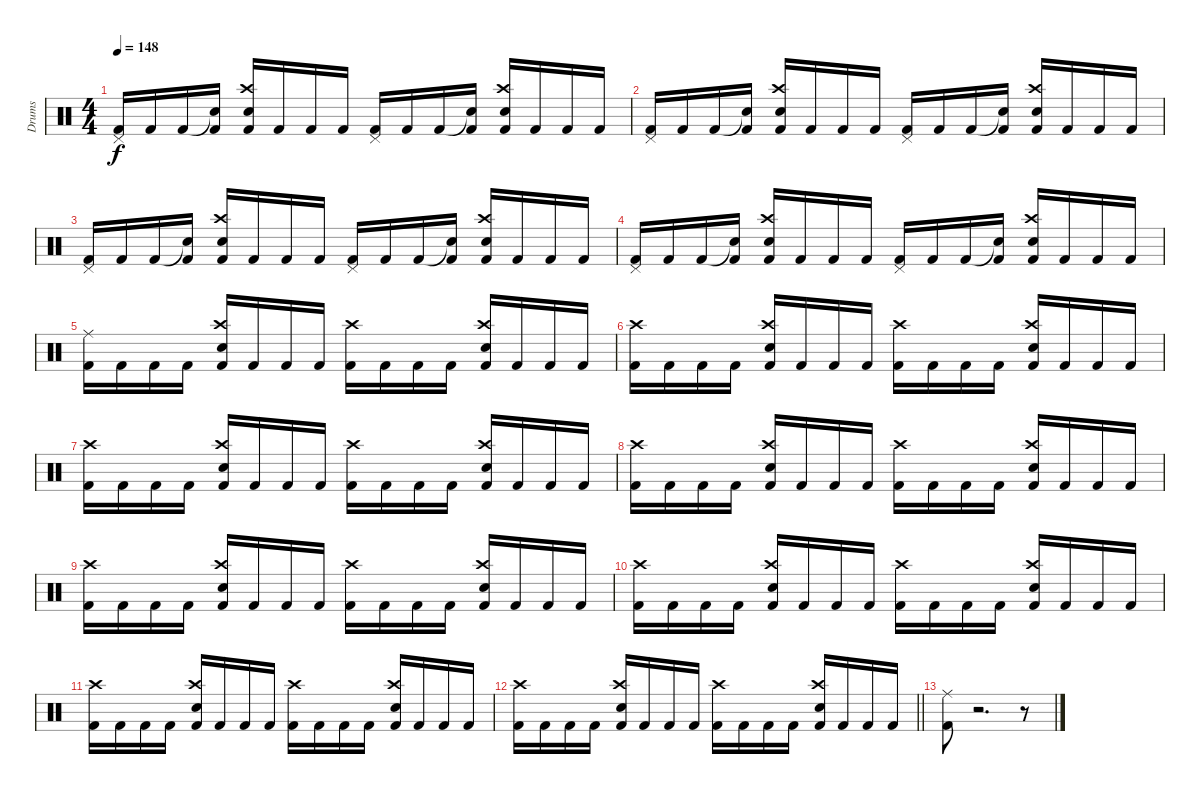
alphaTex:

\track ("Drums" "Drums") {instrument percussion}
\staff {score}
\articulation defaults
\ts (4 4)
\tempo 148
\clef neutral
\ks c
("Pedal Hi-Hat (hit)" "Kick (hit) 2").16{dy f} "Kick (hit) 2".16 "Kick (hit) 2".16 ("Snare (hit)"{t} "Kick (hit) 2").16 ("Crash high (hit)" "Electric Snare (hit)" "Kick (hit) 2").16 "Kick (hit) 2".16 "Kick (hit) 2".16 "Kick (hit) 2".16 ("Pedal Hi-Hat (hit)" "Kick (hit) 2").16 "Kick (hit) 2".16 "Kick (hit) 2".16 ("Snare (hit)"{t} "Kick (hit) 2").16 ("Crash high (hit)" "Electric Snare (hit)" "Kick (hit) 2").16 "Kick (hit) 2".16 "Kick (hit) 2".16 "Kick (hit) 2".16 |
("Pedal Hi-Hat (hit)" "Kick (hit) 2").16 "Kick (hit) 2".16 "Kick (hit) 2".16 ("Snare (hit)"{t} "Kick (hit) 2").16 ("Crash high (hit)" "Electric Snare (hit)" "Kick (hit) 2").16 "Kick (hit) 2".16 "Kick (hit) 2".16 "Kick (hit) 2".16 ("Pedal Hi-Hat (hit)" "Kick (hit) 2").16 "Kick (hit) 2".16 "Kick (hit) 2".16 ("Snare (hit)"{t} "Kick (hit) 2").16 ("Crash high (hit)" "Electric Snare (hit)" "Kick (hit) 2").16 "Kick (hit) 2".16 "Kick (hit) 2".16 "Kick (hit) 2".16 |
("Pedal Hi-Hat (hit)" "Kick (hit) 2").16 "Kick (hit) 2".16 "Kick (hit) 2".16 ("Snare (hit)"{t} "Kick (hit) 2").16 ("Crash high (hit)" "Electric Snare (hit)" "Kick (hit) 2").16 "Kick (hit) 2".16 "Kick (hit) 2".16 "Kick (hit) 2".16 ("Pedal Hi-Hat (hit)" "Kick (hit) 2").16 "Kick (hit) 2".16 "Kick (hit) 2".16 ("Snare (hit)"{t} "Kick (hit) 2").16 ("Crash high (hit)" "Electric Snare (hit)" "Kick (hit) 2").16 "Kick (hit) 2".16 "Kick (hit) 2".16 "Kick (hit) 2".16 |
("Pedal Hi-Hat (hit)" "Kick (hit) 2").16 "Kick (hit) 2".16 "Kick (hit) 2".16 ("Snare (hit)"{t} "Kick (hit) 2").16 ("Crash high (hit)" "Electric Snare (hit)" "Kick (hit) 2").16 "Kick (hit) 2".16 "Kick (hit) 2".16 "Kick (hit) 2".16 ("Pedal Hi-Hat (hit)" "Kick (hit) 2").16 "Kick (hit) 2".16 "Kick (hit) 2".16 ("Snare (hit)"{t} "Kick (hit) 2").16 ("Crash high (hit)" "Electric Snare (hit)" "Kick (hit) 2").16 "Kick (hit) 2".16 "Kick (hit) 2".16 "Kick (hit) 2".16 |
("Ride (middle)" "Kick (hit) 2").16 "Kick (hit) 2".16 "Kick (hit) 2".16 "Kick (hit) 2".16 ("Crash high (hit)" "Electric Snare (hit)" "Kick (hit) 2").16 "Kick (hit) 2".16 "Kick (hit) 2".16 "Kick (hit) 2".16 ("Crash high (hit)" "Kick (hit) 2").16 "Kick (hit) 2".16 "Kick (hit) 2".16 "Kick (hit) 2".16 ("Crash high (hit)" "Electric Snare (hit)" "Kick (hit) 2").16 "Kick (hit) 2".16 "Kick (hit) 2".16 "Kick (hit) 2".16 |
("Crash high (hit)" "Kick (hit) 2").16 "Kick (hit) 2".16 "Kick (hit) 2".16 "Kick (hit) 2".16 ("Crash high (hit)" "Electric Snare (hit)" "Kick (hit) 2").16 "Kick (hit) 2".16 "Kick (hit) 2".16 "Kick (hit) 2".16 ("Crash high (hit)" "Kick (hit) 2").16 "Kick (hit) 2".16 "Kick (hit) 2".16 "Kick (hit) 2".16 ("Crash high (hit)" "Electric Snare (hit)" "Kick (hit) 2").16 "Kick (hit) 2".16 "Kick (hit) 2".16 "Kick (hit) 2".16 |
("Crash high (hit)" "Kick (hit) 2").16 "Kick (hit) 2".16 "Kick (hit) 2".16 "Kick (hit) 2".16 ("Crash high (hit)" "Electric Snare (hit)" "Kick (hit) 2").16 "Kick (hit) 2".16 "Kick (hit) 2".16 "Kick (hit) 2".16 ("Crash high (hit)" "Kick (hit) 2").16 "Kick (hit) 2".16 "Kick (hit) 2".16 "Kick (hit) 2".16 ("Crash high (hit)" "Electric Snare (hit)" "Kick (hit) 2").16 "Kick (hit) 2".16 "Kick (hit) 2".16 "Kick (hit) 2".16 |
("Crash high (hit)" "Kick (hit) 2").16 "Kick (hit) 2".16 "Kick (hit) 2".16 "Kick (hit) 2".16 ("Crash high (hit)" "Electric Snare (hit)" "Kick (hit) 2").16 "Kick (hit) 2".16 "Kick (hit) 2".16 "Kick (hit) 2".16 ("Crash high (hit)" "Kick (hit) 2").16 "Kick (hit) 2".16 "Kick (hit) 2".16 "Kick (hit) 2".16 ("Crash high (hit)" "Electric Snare (hit)" "Kick (hit) 2").16 "Kick (hit) 2".16 "Kick (hit) 2".16 "Kick (hit) 2".16 |
("Crash high (hit)" "Kick (hit) 2").16 "Kick (hit) 2".16 "Kick (hit) 2".16 "Kick (hit) 2".16 ("Crash high (hit)" "Electric Snare (hit)" "Kick (hit) 2").16 "Kick (hit) 2".16 "Kick (hit) 2".16 "Kick (hit) 2".16 ("Crash high (hit)" "Kick (hit) 2").16 "Kick (hit) 2".16 "Kick (hit) 2".16 "Kick (hit) 2".16 ("Crash high (hit)" "Electric Snare (hit)" "Kick (hit) 2").16 "Kick (hit) 2".16 "Kick (hit) 2".16 "Kick (hit) 2".16 |
("Crash high (hit)" "Kick (hit) 2").16 "Kick (hit) 2".16 "Kick (hit) 2".16 "Kick (hit) 2".16 ("Crash high (hit)" "Electric Snare (hit)" "Kick (hit) 2").16 "Kick (hit) 2".16 "Kick (hit) 2".16 "Kick (hit) 2".16 ("Crash high (hit)" "Kick (hit) 2").16 "Kick (hit) 2".16 "Kick (hit) 2".16 "Kick (hit) 2".16 ("Crash high (hit)" "Electric Snare (hit)" "Kick (hit) 2").16 "Kick (hit) 2".16 "Kick (hit) 2".16 "Kick (hit) 2".16 |
("Crash high (hit)" "Kick (hit) 2").16 "Kick (hit) 2".16 "Kick (hit) 2".16 "Kick (hit) 2".16 ("Crash high (hit)" "Electric Snare (hit)" "Kick (hit) 2").16 "Kick (hit) 2".16 "Kick (hit) 2".16 "Kick (hit) 2".16 ("Crash high (hit)" "Kick (hit) 2").16 "Kick (hit) 2".16 "Kick (hit) 2".16 "Kick (hit) 2".16 ("Crash high (hit)" "Electric Snare (hit)" "Kick (hit) 2").16 "Kick (hit) 2".16 "Kick (hit) 2".16 "Kick (hit) 2".16 |
\barLineRight lightlight
("Crash high (hit)" "Kick (hit) 2").16 "Kick (hit) 2".16 "Kick (hit) 2".16 "Kick (hit) 2".16 ("Crash high (hit)" "Electric Snare (hit)" "Kick (hit) 2").16 "Kick (hit) 2".16 "Kick (hit) 2".16 "Kick (hit) 2".16 ("Crash high (hit)" "Kick (hit) 2").16 "Kick (hit) 2".16 "Kick (hit) 2".16 "Kick (hit) 2".16 ("Crash high (hit)" "Electric Snare (hit)" "Kick (hit) 2").16 "Kick (hit) 2".16 "Kick (hit) 2".16 "Kick (hit) 2".16 |
("Ride (middle)" "Kick (hit) 2").8 r.2{d} r.8
